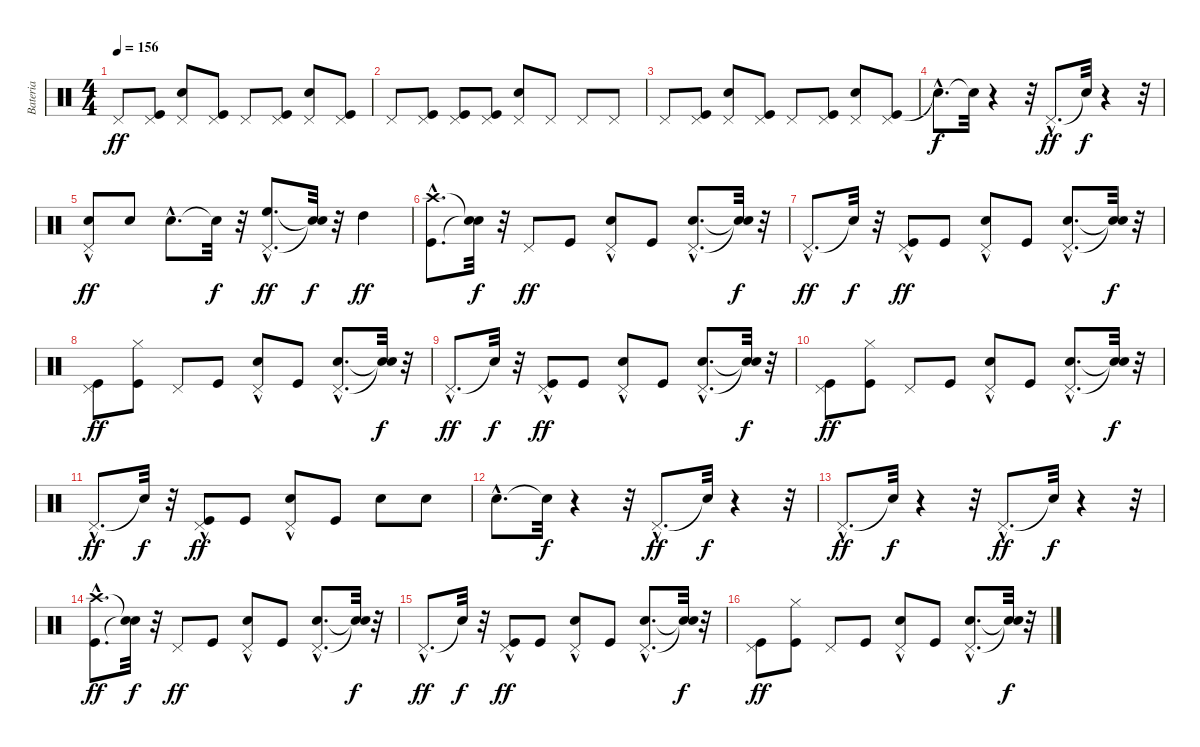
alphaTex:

\track ("Bateria" "Bateria") {instrument percussion}
\staff {score}
\articulation defaults
\ts (4 4)
\tempo 156
\clef neutral
\ks c "Pedal Hi-Hat (hit)".8{dy ff}
("Kick (hit)" "Pedal Hi-Hat (hit)").8 ("Snare (hit) 2" "Pedal Hi-Hat (hit)").8 ("Kick (hit)" "Pedal Hi-Hat (hit)").8 "Pedal Hi-Hat (hit)".8 ("Kick (hit)" "Pedal Hi-Hat (hit)").8 ("Snare (hit) 2" "Pedal Hi-Hat (hit)").8 ("Kick (hit)" "Pedal Hi-Hat (hit)").8 |
"Pedal Hi-Hat (hit)".8 ("Kick (hit)" "Pedal Hi-Hat (hit)").8 ("Kick (hit)" "Pedal Hi-Hat (hit)").8 ("Kick (hit)" "Pedal Hi-Hat (hit)").8 ("Snare (hit) 2" "Pedal Hi-Hat (hit)").8 "Pedal Hi-Hat (hit)".8 "Pedal Hi-Hat (hit)".8 "Pedal Hi-Hat (hit)".8 |
"Pedal Hi-Hat (hit)".8 ("Kick (hit)" "Pedal Hi-Hat (hit)").8 ("Snare (hit) 2" "Pedal Hi-Hat (hit)").8 ("Kick (hit)" "Pedal Hi-Hat (hit)").8 "Pedal Hi-Hat (hit)".8 ("Kick (hit)" "Pedal Hi-Hat (hit)").8 ("Snare (hit) 2" "Pedal Hi-Hat (hit)").8 ("Kick (hit)" "Pedal Hi-Hat (hit)").8 |
"Snare (hit)"{hac t}.8{d dy f} "Snare (hit)"{t}.32 r.4 r.32 "Pedal Hi-Hat (hit)"{hac}.8{d dy ff} "Snare (hit)"{t}.32{dy f} r.4 r.32 |
("Snare (hit) 2" "Pedal Hi-Hat (hit)"{hac}).8{dy ff} "Snare (hit) 2".8 "Snare (hit) 2"{hac}.8{d} "Snare (hit)"{t}.32{dy f} r.32 ("Pedal Hi-Hat (hit)"{hac} "High Floor Tom (hit)"{hac}).8{d dy ff} ("Snare (hit)"{t} "Snare (hit)"{t}).32{dy f} r.32 "High Tom (hit)".4{dy ff} |
("Kick (hit)"{hac} "Crash high (hit)"{hac}).8{d} ("Snare (hit)"{t} "Snare (hit)"{t}).32{dy f} r.32 "Pedal Hi-Hat (hit)".8{dy ff} "Kick (hit)".8 ("Snare (hit) 2" "Pedal Hi-Hat (hit)"{hac}).8 "Kick (hit)".8 ("Snare (hit) 2"{hac} "Pedal Hi-Hat (hit)"{hac}).8{d} ("Snare (hit)"{t} "Snare (hit)"{t}).32{dy f} r.32 |
"Pedal Hi-Hat (hit)"{hac}.8{d dy ff} "Snare (hit)"{t}.32{dy f} r.32 ("Kick (hit)" "Pedal Hi-Hat (hit)"{hac}).8{dy ff} "Kick (hit)".8 ("Snare (hit) 2" "Pedal Hi-Hat (hit)"{hac}).8 "Kick (hit)".8 ("Snare (hit) 2"{hac} "Pedal Hi-Hat (hit)"{hac}).8{d} ("Snare (hit)"{t} "Snare (hit)"{t}).32{dy f} r.32 |
("Kick (hit)" "Pedal Hi-Hat (hit)").8{dy ff} ("Kick (hit)" "Hi-Hat (closed)").8 "Pedal Hi-Hat (hit)".8 "Kick (hit)".8 ("Snare (hit) 2" "Pedal Hi-Hat (hit)"{hac}).8 "Kick (hit)".8 ("Snare (hit) 2"{hac} "Pedal Hi-Hat (hit)"{hac}).8{d} ("Snare (hit)"{t} "Snare (hit)"{t}).32{dy f} r.32 |
"Pedal Hi-Hat (hit)"{hac}.8{d dy ff} "Snare (hit)"{t}.32{dy f} r.32 ("Kick (hit)" "Pedal Hi-Hat (hit)"{hac}).8{dy ff} "Kick (hit)".8 ("Snare (hit) 2" "Pedal Hi-Hat (hit)"{hac}).8 "Kick (hit)".8 ("Snare (hit) 2"{hac} "Pedal Hi-Hat (hit)"{hac}).8{d} ("Snare (hit)"{t} "Snare (hit)"{t}).32{dy f} r.32 |
("Kick (hit)" "Pedal Hi-Hat (hit)").8{dy ff} ("Kick (hit)" "Hi-Hat (closed)").8 "Pedal Hi-Hat (hit)".8 "Kick (hit)".8 ("Snare (hit) 2" "Pedal Hi-Hat (hit)"{hac}).8 "Kick (hit)".8 ("Snare (hit) 2"{hac} "Pedal Hi-Hat (hit)"{hac}).8{d} ("Snare (hit)"{t} "Snare (hit)"{t}).32{dy f} r.32 |
"Pedal Hi-Hat (hit)"{hac}.8{d dy ff} "Snare (hit)"{t}.32{dy f} r.32 ("Kick (hit)" "Pedal Hi-Hat (hit)"{hac}).8{dy ff} "Kick (hit)".8 ("Snare (hit) 2" "Pedal Hi-Hat (hit)"{hac}).8 "Kick (hit)".8 "Snare (hit) 2".8 "Snare (hit) 2".8 |
"Snare (hit) 2"{hac}.8{d} "Snare (hit)"{t}.32{dy f} r.4 r.32 "Pedal Hi-Hat (hit)"{hac}.8{d dy ff} "Snare (hit)"{t}.32{dy f} r.4 r.32 |
"Pedal Hi-Hat (hit)"{hac}.8{d dy ff} "Snare (hit)"{t}.32{dy f} r.4 r.32 "Pedal Hi-Hat (hit)"{hac}.8{d dy ff} "Snare (hit)"{t}.32{dy f} r.4 r.32 |
("Kick (hit)"{hac} "Crash high (hit)"{hac}).8{d dy ff} ("Snare (hit)"{t} "Snare (hit)"{t}).32{dy f} r.32 "Pedal Hi-Hat (hit)".8{dy ff} "Kick (hit)".8 ("Snare (hit) 2" "Pedal Hi-Hat (hit)"{hac}).8 "Kick (hit)".8 ("Snare (hit) 2"{hac} "Pedal Hi-Hat (hit)"{hac}).8{d} ("Snare (hit)"{t} "Snare (hit)"{t}).32{dy f} r.32 |
"Pedal Hi-Hat (hit)"{hac}.8{d dy ff} "Snare (hit)"{t}.32{dy f} r.32 ("Kick (hit)" "Pedal Hi-Hat (hit)"{hac}).8{dy ff} "Kick (hit)".8 ("Snare (hit) 2" "Pedal Hi-Hat (hit)"{hac}).8 "Kick (hit)".8 ("Snare (hit) 2"{hac} "Pedal Hi-Hat (hit)"{hac}).8{d} ("Snare (hit)"{t} "Snare (hit)"{t}).32{dy f} r.32 |
("Kick (hit)" "Pedal Hi-Hat (hit)").8{dy ff} ("Kick (hit)" "Hi-Hat (closed)").8 "Pedal Hi-Hat (hit)".8 "Kick (hit)".8 ("Snare (hit) 2" "Pedal Hi-Hat (hit)"{hac}).8 "Kick (hit)".8 ("Snare (hit) 2"{hac} "Pedal Hi-Hat (hit)"{hac}).8{d} ("Snare (hit)"{t} "Snare (hit)"{t}).32{dy f} r.32
